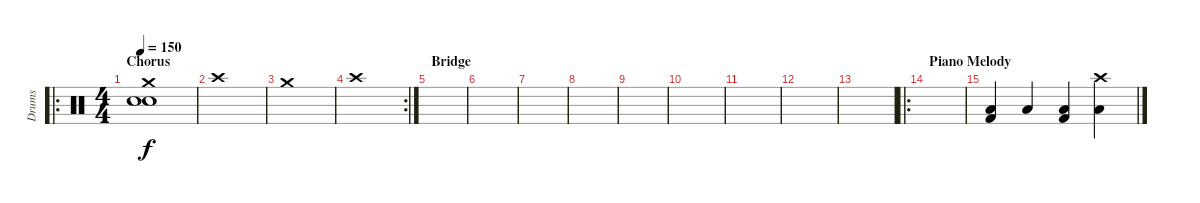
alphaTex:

\track ("Drums" "Drums") {instrument percussion}
\staff {score}
\articulation defaults
\ro
\ts (4 4)
\section ("" "Chorus")
\tempo 150
\clef neutral
\ks c
("Crash medium (hit)" "Snare (hit)"{t} "Snare (hit)"{t}).1{dy f} |
"Crash high (hit)".1 |
"Crash medium (hit)".1 |
\rc 2 "Crash high (hit)".1
|
\section ("" "Bridge")
|
|
|
|
|
|
|
|
|
\ro
\section ("" "Piano Melody")
|
("Low Tom (hit)" "Kick (hit) 2").4 "Low Tom (hit)".4 ("Low Tom (hit)" "Kick (hit) 2").4 ("Crash high (hit)" "Low Tom (hit)").4
